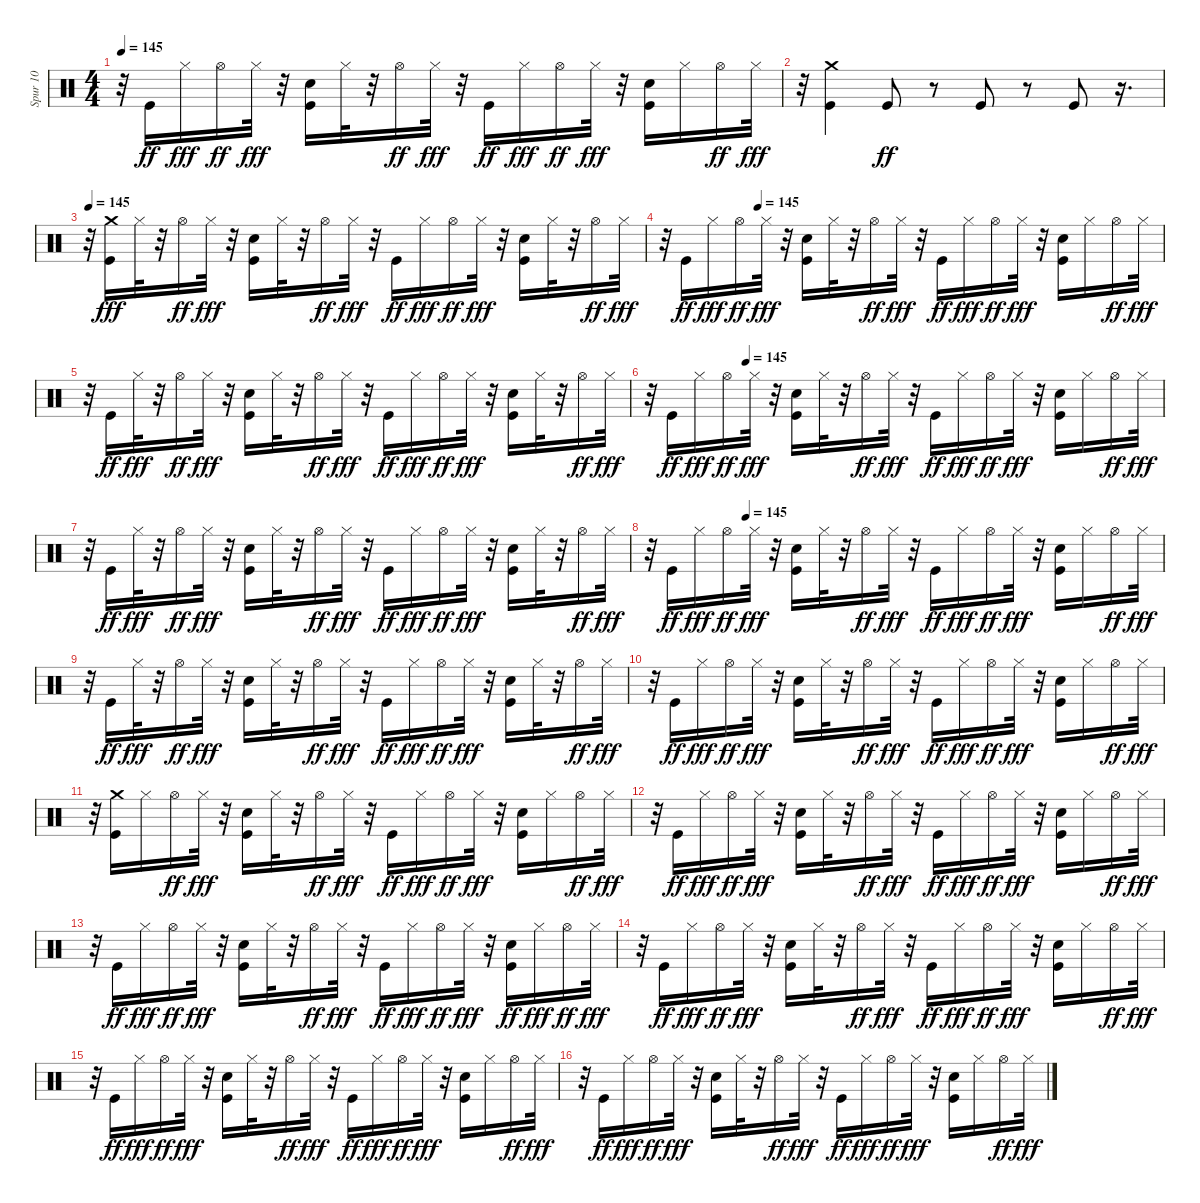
\track ("Spur 10" "Spur 10") {instrument percussion}
\staff {score}
\articulation defaults
\ts (4 4)
\tempo 145
\clef neutral
\ks c
r.32{dy fff} "Kick (hit)".16{dy ff} "Hi-Hat (closed)".16{dy fff} "Hi-Hat (open)".16{dy ff} "Hi-Hat (closed)".32{dy fff} r.32 ("Kick (hit)" "Hand Clap (hit)").16 "Hi-Hat (closed)".32 r.32 "Hi-Hat (open)".16{dy ff} "Hi-Hat (closed)".32{dy fff} r.32 "Kick (hit)".16{dy ff} "Hi-Hat (closed)".16{dy fff} "Hi-Hat (open)".16{dy ff} "Hi-Hat (closed)".32{dy fff} r.32 ("Kick (hit)" "Hand Clap (hit)").16 "Hi-Hat (closed)".16 "Hi-Hat (open)".16{dy ff} "Hi-Hat (closed)".32{dy fff} |
r.32 ("Kick (hit)" "Crash medium (hit)").4 "Kick (hit)".8{dy ff} r.8 "Kick (hit)".8 r.8 "Kick (hit)".8 r.16{d} |
\tempo 145
r.32 ("Kick (hit)" "Crash medium (hit)").16{dy fff} "Hi-Hat (closed)".32 r.32 "Hi-Hat (open)".16{dy ff} "Hi-Hat (closed)".32{dy fff} r.32 ("Kick (hit)" "Hand Clap (hit)").16 "Hi-Hat (closed)".32 r.32 "Hi-Hat (open)".16{dy ff} "Hi-Hat (closed)".32{dy fff} r.32 "Kick (hit)".16{dy ff} "Hi-Hat (closed)".16{dy fff} "Hi-Hat (open)".16{dy ff} "Hi-Hat (closed)".32{dy fff} r.32 ("Kick (hit)" "Hand Clap (hit)").16 "Hi-Hat (closed)".32 r.32 "Hi-Hat (open)".16{dy ff} "Hi-Hat (closed)".32{dy fff} |
\tempo (145 0.1875)
r.32 "Kick (hit)".16{dy ff} "Hi-Hat (closed)".16{dy fff} "Hi-Hat (open)".16{dy ff} "Hi-Hat (closed)".32{dy fff} r.32 ("Kick (hit)" "Hand Clap (hit)").16 "Hi-Hat (closed)".32 r.32 "Hi-Hat (open)".16{dy ff} "Hi-Hat (closed)".32{dy fff} r.32 "Kick (hit)".16{dy ff} "Hi-Hat (closed)".16{dy fff} "Hi-Hat (open)".16{dy ff} "Hi-Hat (closed)".32{dy fff} r.32 ("Kick (hit)" "Hand Clap (hit)").16 "Hi-Hat (closed)".16 "Hi-Hat (open)".16{dy ff} "Hi-Hat (closed)".32{dy fff} |
r.32 "Kick (hit)".16{dy ff} "Hi-Hat (closed)".32{dy fff} r.32 "Hi-Hat (open)".16{dy ff} "Hi-Hat (closed)".32{dy fff} r.32 ("Kick (hit)" "Hand Clap (hit)").16 "Hi-Hat (closed)".32 r.32 "Hi-Hat (open)".16{dy ff} "Hi-Hat (closed)".32{dy fff} r.32 "Kick (hit)".16{dy ff} "Hi-Hat (closed)".16{dy fff} "Hi-Hat (open)".16{dy ff} "Hi-Hat (closed)".32{dy fff} r.32 ("Kick (hit)" "Hand Clap (hit)").16 "Hi-Hat (closed)".32 r.32 "Hi-Hat (open)".16{dy ff} "Hi-Hat (closed)".32{dy fff} |
\tempo (145 0.1875)
r.32 "Kick (hit)".16{dy ff} "Hi-Hat (closed)".16{dy fff} "Hi-Hat (open)".16{dy ff} "Hi-Hat (closed)".32{dy fff} r.32 ("Kick (hit)" "Hand Clap (hit)").16 "Hi-Hat (closed)".32 r.32 "Hi-Hat (open)".16{dy ff} "Hi-Hat (closed)".32{dy fff} r.32 "Kick (hit)".16{dy ff} "Hi-Hat (closed)".16{dy fff} "Hi-Hat (open)".16{dy ff} "Hi-Hat (closed)".32{dy fff} r.32 ("Kick (hit)" "Hand Clap (hit)").16 "Hi-Hat (closed)".16 "Hi-Hat (open)".16{dy ff} "Hi-Hat (closed)".32{dy fff} |
r.32 "Kick (hit)".16{dy ff} "Hi-Hat (closed)".32{dy fff} r.32 "Hi-Hat (open)".16{dy ff} "Hi-Hat (closed)".32{dy fff} r.32 ("Kick (hit)" "Hand Clap (hit)").16 "Hi-Hat (closed)".32 r.32 "Hi-Hat (open)".16{dy ff} "Hi-Hat (closed)".32{dy fff} r.32 "Kick (hit)".16{dy ff} "Hi-Hat (closed)".16{dy fff} "Hi-Hat (open)".16{dy ff} "Hi-Hat (closed)".32{dy fff} r.32 ("Kick (hit)" "Hand Clap (hit)").16 "Hi-Hat (closed)".32 r.32 "Hi-Hat (open)".16{dy ff} "Hi-Hat (closed)".32{dy fff} |
\tempo (145 0.1875)
r.32 "Kick (hit)".16{dy ff} "Hi-Hat (closed)".16{dy fff} "Hi-Hat (open)".16{dy ff} "Hi-Hat (closed)".32{dy fff} r.32 ("Kick (hit)" "Hand Clap (hit)").16 "Hi-Hat (closed)".32 r.32 "Hi-Hat (open)".16{dy ff} "Hi-Hat (closed)".32{dy fff} r.32 "Kick (hit)".16{dy ff} "Hi-Hat (closed)".16{dy fff} "Hi-Hat (open)".16{dy ff} "Hi-Hat (closed)".32{dy fff} r.32 ("Kick (hit)" "Hand Clap (hit)").16 "Hi-Hat (closed)".16 "Hi-Hat (open)".16{dy ff} "Hi-Hat (closed)".32{dy fff} |
r.32 "Kick (hit)".16{dy ff} "Hi-Hat (closed)".32{dy fff} r.32 "Hi-Hat (open)".16{dy ff} "Hi-Hat (closed)".32{dy fff} r.32 ("Kick (hit)" "Hand Clap (hit)").16 "Hi-Hat (closed)".32 r.32 "Hi-Hat (open)".16{dy ff} "Hi-Hat (closed)".32{dy fff} r.32 "Kick (hit)".16{dy ff} "Hi-Hat (closed)".16{dy fff} "Hi-Hat (open)".16{dy ff} "Hi-Hat (closed)".32{dy fff} r.32 ("Kick (hit)" "Hand Clap (hit)").16 "Hi-Hat (closed)".32 r.32 "Hi-Hat (open)".16{dy ff} "Hi-Hat (closed)".32{dy fff} |
r.32 "Kick (hit)".16{dy ff} "Hi-Hat (closed)".16{dy fff} "Hi-Hat (open)".16{dy ff} "Hi-Hat (closed)".32{dy fff} r.32 ("Kick (hit)" "Hand Clap (hit)").16 "Hi-Hat (closed)".32 r.32 "Hi-Hat (open)".16{dy ff} "Hi-Hat (closed)".32{dy fff} r.32 "Kick (hit)".16{dy ff} "Hi-Hat (closed)".16{dy fff} "Hi-Hat (open)".16{dy ff} "Hi-Hat (closed)".32{dy fff} r.32 ("Kick (hit)" "Hand Clap (hit)").16 "Hi-Hat (closed)".16 "Hi-Hat (open)".16{dy ff} "Hi-Hat (closed)".32{dy fff} |
r.32 ("Kick (hit)" "Crash medium (hit)").16 "Hi-Hat (closed)".16 "Hi-Hat (open)".16{dy ff} "Hi-Hat (closed)".32{dy fff} r.32 ("Kick (hit)" "Hand Clap (hit)").16 "Hi-Hat (closed)".32 r.32 "Hi-Hat (open)".16{dy ff} "Hi-Hat (closed)".32{dy fff} r.32 "Kick (hit)".16{dy ff} "Hi-Hat (closed)".16{dy fff} "Hi-Hat (open)".16{dy ff} "Hi-Hat (closed)".32{dy fff} r.32 ("Kick (hit)" "Hand Clap (hit)").16 "Hi-Hat (closed)".16 "Hi-Hat (open)".16{dy ff} "Hi-Hat (closed)".32{dy fff} |
r.32 "Kick (hit)".16{dy ff} "Hi-Hat (closed)".16{dy fff} "Hi-Hat (open)".16{dy ff} "Hi-Hat (closed)".32{dy fff} r.32 ("Kick (hit)" "Hand Clap (hit)").16 "Hi-Hat (closed)".32 r.32 "Hi-Hat (open)".16{dy ff} "Hi-Hat (closed)".32{dy fff} r.32 "Kick (hit)".16{dy ff} "Hi-Hat (closed)".16{dy fff} "Hi-Hat (open)".16{dy ff} "Hi-Hat (closed)".32{dy fff} r.32 ("Kick (hit)" "Hand Clap (hit)").16 "Hi-Hat (closed)".16 "Hi-Hat (open)".16{dy ff} "Hi-Hat (closed)".32{dy fff} |
r.32 "Kick (hit)".16{dy ff} "Hi-Hat (closed)".16{dy fff} "Hi-Hat (open)".16{dy ff} "Hi-Hat (closed)".32{dy fff} r.32 ("Kick (hit)" "Hand Clap (hit)").16 "Hi-Hat (closed)".32 r.32 "Hi-Hat (open)".16{dy ff} "Hi-Hat (closed)".32{dy fff} r.32 "Kick (hit)".16{dy ff} "Hi-Hat (closed)".16{dy fff} "Hi-Hat (open)".16{dy ff} "Hi-Hat (closed)".32{dy fff} r.32 ("Hand Clap (hit)" "Kick (hit)").16{dy ff} "Hi-Hat (closed)".16{dy fff} "Hi-Hat (open)".16{dy ff} "Hi-Hat (closed)".32{dy fff} |
r.32 "Kick (hit)".16{dy ff} "Hi-Hat (closed)".16{dy fff} "Hi-Hat (open)".16{dy ff} "Hi-Hat (closed)".32{dy fff} r.32 ("Kick (hit)" "Hand Clap (hit)").16 "Hi-Hat (closed)".32 r.32 "Hi-Hat (open)".16{dy ff} "Hi-Hat (closed)".32{dy fff} r.32 "Kick (hit)".16{dy ff} "Hi-Hat (closed)".16{dy fff} "Hi-Hat (open)".16{dy ff} "Hi-Hat (closed)".32{dy fff} r.32 ("Kick (hit)" "Hand Clap (hit)").16 "Hi-Hat (closed)".16 "Hi-Hat (open)".16{dy ff} "Hi-Hat (closed)".32{dy fff} |
r.32 "Kick (hit)".16{dy ff} "Hi-Hat (closed)".16{dy fff} "Hi-Hat (open)".16{dy ff} "Hi-Hat (closed)".32{dy fff} r.32 ("Kick (hit)" "Hand Clap (hit)").16 "Hi-Hat (closed)".32 r.32 "Hi-Hat (open)".16{dy ff} "Hi-Hat (closed)".32{dy fff} r.32 "Kick (hit)".16{dy ff} "Hi-Hat (closed)".16{dy fff} "Hi-Hat (open)".16{dy ff} "Hi-Hat (closed)".32{dy fff} r.32 ("Kick (hit)" "Hand Clap (hit)").16 "Hi-Hat (closed)".16 "Hi-Hat (open)".16{dy ff} "Hi-Hat (closed)".32{dy fff} |
r.32 "Kick (hit)".16{dy ff} "Hi-Hat (closed)".16{dy fff} "Hi-Hat (open)".16{dy ff} "Hi-Hat (closed)".32{dy fff} r.32 ("Kick (hit)" "Hand Clap (hit)").16 "Hi-Hat (closed)".32 r.32 "Hi-Hat (open)".16{dy ff} "Hi-Hat (closed)".32{dy fff} r.32 "Kick (hit)".16{dy ff} "Hi-Hat (closed)".16{dy fff} "Hi-Hat (open)".16{dy ff} "Hi-Hat (closed)".32{dy fff} r.32 ("Kick (hit)" "Hand Clap (hit)").16 "Hi-Hat (closed)".16 "Hi-Hat (open)".16{dy ff} "Hi-Hat (closed)".32{dy fff}
